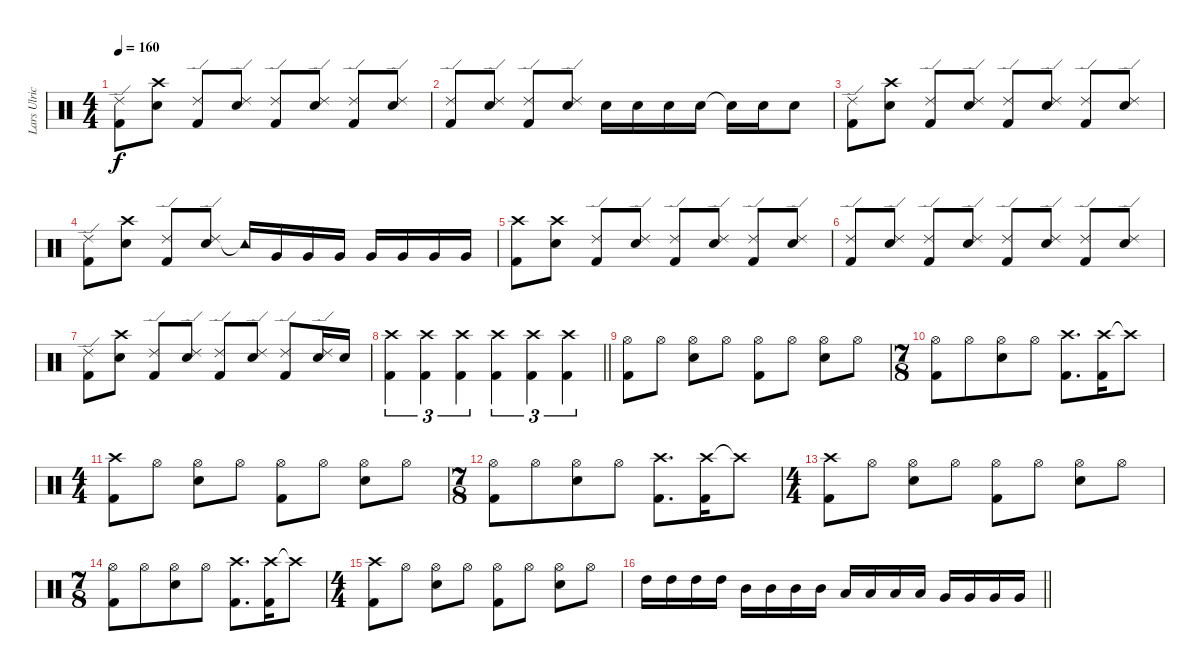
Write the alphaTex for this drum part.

\track ("Lars Ulrich" "Lars Ulric") {instrument percussion}
\staff {score}
\articulation defaults
\ts (4 4)
\tempo 160
\clef neutral
\ks c
("Ride (edge) 2" "Kick (hit) 2").8{dy f} ("Crash high (hit)" "Electric Snare (hit)").8 ("Ride (edge) 2" "Kick (hit) 2").8 ("Ride (edge) 2" "Electric Snare (hit)").8 ("Ride (edge) 2" "Kick (hit) 2").8 ("Ride (edge) 2" "Electric Snare (hit)").8 ("Ride (edge) 2" "Kick (hit) 2").8 ("Ride (edge) 2" "Electric Snare (hit)").8 |
("Ride (edge) 2" "Kick (hit) 2").8 ("Ride (edge) 2" "Electric Snare (hit)").8 ("Ride (edge) 2" "Kick (hit) 2").8 ("Ride (edge) 2" "Electric Snare (hit)").8 "Electric Snare (hit)".16 "Electric Snare (hit)".16 "Electric Snare (hit)".16 "Electric Snare (hit)".16 "Snare (hit)"{t}.16 "Electric Snare (hit)".16 "Electric Snare (hit)".8 |
("Ride (edge) 2" "Kick (hit) 2").8 ("Crash high (hit)" "Electric Snare (hit)").8 ("Ride (edge) 2" "Kick (hit) 2").8 ("Ride (edge) 2" "Electric Snare (hit)").8 ("Ride (edge) 2" "Kick (hit) 2").8 ("Ride (edge) 2" "Electric Snare (hit)").8 ("Ride (edge) 2" "Kick (hit) 2").8 ("Ride (edge) 2" "Electric Snare (hit)").8 |
("Ride (edge) 2" "Kick (hit) 2").8 ("Crash high (hit)" "Electric Snare (hit)").8 ("Ride (edge) 2" "Kick (hit) 2").8 ("Ride (edge) 2" "Electric Snare (hit)").8 "Tambourine (hit)"{t}.16 "Very Low Tom (hit)".16 "Very Low Tom (hit)".16 "Very Low Tom (hit)".16 "Very Low Tom (hit)".16 "Very Low Tom (hit)".16 "Very Low Tom (hit)".16 "Very Low Tom (hit)".16 |
("Crash high (hit)" "Kick (hit) 2").8 ("Crash high (hit)" "Electric Snare (hit)").8 ("Ride (edge) 2" "Kick (hit) 2").8 ("Ride (edge) 2" "Electric Snare (hit)").8 ("Ride (edge) 2" "Kick (hit) 2").8 ("Ride (edge) 2" "Electric Snare (hit)").8 ("Ride (edge) 2" "Kick (hit) 2").8 ("Ride (edge) 2" "Electric Snare (hit)").8 |
("Ride (edge) 2" "Kick (hit) 2").8 ("Ride (edge) 2" "Electric Snare (hit)").8 ("Ride (edge) 2" "Kick (hit) 2").8 ("Ride (edge) 2" "Electric Snare (hit)").8 ("Ride (edge) 2" "Kick (hit) 2").8 ("Ride (edge) 2" "Electric Snare (hit)").8 ("Ride (edge) 2" "Kick (hit) 2").8 ("Ride (edge) 2" "Electric Snare (hit)").8 |
("Ride (edge) 2" "Kick (hit) 2").8 ("Crash high (hit)" "Electric Snare (hit)").8 ("Ride (edge) 2" "Kick (hit) 2").8 ("Ride (edge) 2" "Electric Snare (hit)").8 ("Ride (edge) 2" "Kick (hit) 2").8 ("Ride (edge) 2" "Electric Snare (hit)").8 ("Ride (edge) 2" "Kick (hit) 2").8 ("Ride (edge) 2" "Electric Snare (hit)").16 "Electric Snare (hit)".16 |
\barLineRight lightlight
("Crash high (hit)" "Kick (hit) 2").4{tu (3 2)} ("Crash high (hit)" "Kick (hit) 2").4{tu (3 2)} ("Crash high (hit)" "Kick (hit) 2").4{tu (3 2)} ("Crash high (hit)" "Kick (hit) 2").4{tu (3 2)} ("Crash high (hit)" "Kick (hit) 2").4{tu (3 2)} ("Crash high (hit)" "Kick (hit) 2").4{tu (3 2)} |
("Hi-Hat (open)" "Kick (hit) 2").8 "Hi-Hat (open)".8 ("Hi-Hat (open)" "Electric Snare (hit)").8 "Hi-Hat (open)".8 ("Hi-Hat (open)" "Kick (hit) 2").8 "Hi-Hat (open)".8 ("Hi-Hat (open)" "Electric Snare (hit)").8 "Hi-Hat (open)".8 |
\ts (7 8)
("Hi-Hat (open)" "Kick (hit) 2").8 "Hi-Hat (open)".8 ("Hi-Hat (open)" "Electric Snare (hit)").8 "Hi-Hat (open)".8 ("Crash high (hit)" "Kick (hit) 2").8{d} ("Crash high (hit)" "Kick (hit) 2").16 "Crash high (hit)"{t}.8 |
\ts (4 4)
("Crash high (hit)" "Kick (hit) 2").8 "Hi-Hat (open)".8 ("Hi-Hat (open)" "Electric Snare (hit)").8 "Hi-Hat (open)".8 ("Hi-Hat (open)" "Kick (hit) 2").8 "Hi-Hat (open)".8 ("Hi-Hat (open)" "Electric Snare (hit)").8 "Hi-Hat (open)".8 |
\ts (7 8)
("Hi-Hat (open)" "Kick (hit) 2").8 "Hi-Hat (open)".8 ("Hi-Hat (open)" "Electric Snare (hit)").8 "Hi-Hat (open)".8 ("Crash high (hit)" "Kick (hit) 2").8{d} ("Crash high (hit)" "Kick (hit) 2").16 "Crash high (hit)"{t}.8 |
\ts (4 4)
("Crash high (hit)" "Kick (hit) 2").8 "Hi-Hat (open)".8 ("Hi-Hat (open)" "Electric Snare (hit)").8 "Hi-Hat (open)".8 ("Hi-Hat (open)" "Kick (hit) 2").8 "Hi-Hat (open)".8 ("Hi-Hat (open)" "Electric Snare (hit)").8 "Hi-Hat (open)".8 |
\ts (7 8)
("Hi-Hat (open)" "Kick (hit) 2").8 "Hi-Hat (open)".8 ("Hi-Hat (open)" "Electric Snare (hit)").8 "Hi-Hat (open)".8 ("Crash high (hit)" "Kick (hit) 2").8{d} ("Crash high (hit)" "Kick (hit) 2").16 "Crash high (hit)"{t}.8 |
\ts (4 4)
("Crash high (hit)" "Kick (hit) 2").8 "Hi-Hat (open)".8 ("Hi-Hat (open)" "Electric Snare (hit)").8 "Hi-Hat (open)".8 ("Hi-Hat (open)" "Kick (hit) 2").8 "Hi-Hat (open)".8 ("Hi-Hat (open)" "Electric Snare (hit)").8 "Hi-Hat (open)".8{balance 0} |
\barLineRight lightlight "High Tom (hit)".16{balance 16} "High Tom (hit)".16 "High Tom (hit)".16 "High Tom (hit)".16 "Mid Tom (hit)".16 "Mid Tom (hit)".16 "Mid Tom (hit)".16 "Mid Tom (hit)".16 "Low Tom (hit)".16 "Low Tom (hit)".16 "Low Tom (hit)".16 "Low Tom (hit)".16 "Very Low Tom (hit)".16 "Very Low Tom (hit)".16 "Very Low Tom (hit)".16 "Very Low Tom (hit)".16
